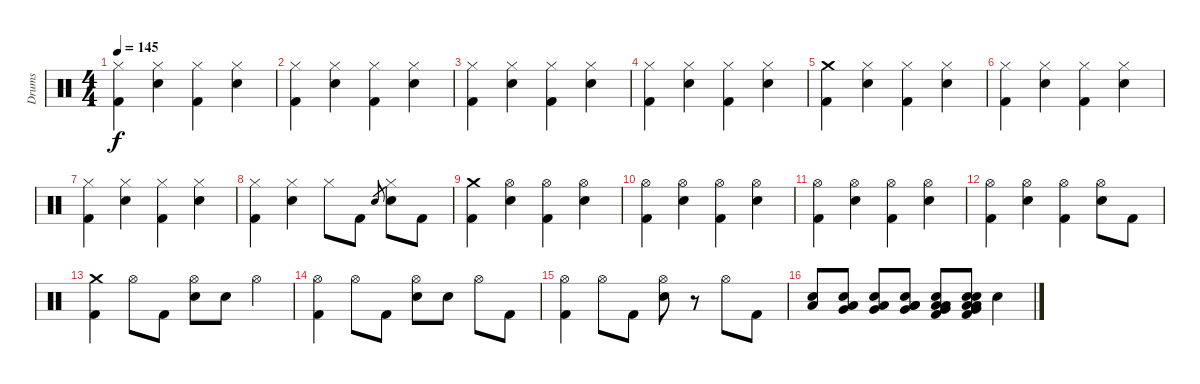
\track ("Drums" "Drums") {instrument percussion}
\staff {score}
\articulation defaults
\ts (4 4)
\tempo 145
\clef neutral
\ks c
("Hi-Hat (closed)" "Kick (hit) 2").4{dy f} ("Hi-Hat (closed)" "Snare (hit) 2").4 ("Hi-Hat (closed)" "Kick (hit) 2").4 ("Hi-Hat (closed)" "Snare (hit) 2").4 |
("Hi-Hat (closed)" "Kick (hit) 2").4 ("Hi-Hat (closed)" "Snare (hit) 2").4 ("Hi-Hat (closed)" "Kick (hit) 2").4 ("Hi-Hat (closed)" "Snare (hit) 2").4 |
("Hi-Hat (closed)" "Kick (hit) 2").4 ("Hi-Hat (closed)" "Snare (hit) 2").4 ("Hi-Hat (closed)" "Kick (hit) 2").4 ("Hi-Hat (closed)" "Snare (hit) 2").4 |
("Hi-Hat (closed)" "Kick (hit) 2").4 ("Hi-Hat (closed)" "Snare (hit) 2").4 ("Hi-Hat (closed)" "Kick (hit) 2").4 ("Hi-Hat (closed)" "Snare (hit) 2").4 |
("Crash medium (hit)" "Kick (hit) 2").4 ("Hi-Hat (closed)" "Snare (hit) 2").4 ("Hi-Hat (closed)" "Kick (hit) 2").4 ("Hi-Hat (closed)" "Snare (hit) 2").4 |
("Hi-Hat (closed)" "Kick (hit) 2").4 ("Hi-Hat (closed)" "Snare (hit) 2").4 ("Hi-Hat (closed)" "Kick (hit) 2").4 ("Hi-Hat (closed)" "Snare (hit) 2").4 |
("Hi-Hat (closed)" "Kick (hit) 2").4 ("Hi-Hat (closed)" "Snare (hit) 2").4 ("Hi-Hat (closed)" "Kick (hit) 2").4 ("Hi-Hat (closed)" "Snare (hit) 2").4 |
("Hi-Hat (closed)" "Kick (hit) 2").4 ("Hi-Hat (closed)" "Snare (hit) 2").4 "Hi-Hat (closed)".8 "Kick (hit) 2".8 "Electric Snare (hit)".8{gr} ("Hi-Hat (closed)" "Snare (hit) 2").8 "Kick (hit) 2".8 |
("Crash medium (hit)" "Kick (hit) 2").4 ("Hi-Hat (open)" "Snare (hit) 2").4 ("Hi-Hat (open)" "Kick (hit) 2").4 ("Hi-Hat (open)" "Snare (hit) 2").4 |
("Hi-Hat (open)" "Kick (hit) 2").4 ("Hi-Hat (open)" "Snare (hit) 2").4 ("Hi-Hat (open)" "Kick (hit) 2").4 ("Hi-Hat (open)" "Snare (hit) 2").4 |
("Hi-Hat (open)" "Kick (hit) 2").4 ("Hi-Hat (open)" "Snare (hit) 2").4 ("Hi-Hat (open)" "Kick (hit) 2").4 ("Hi-Hat (open)" "Snare (hit) 2").4 |
("Hi-Hat (open)" "Kick (hit) 2").4 ("Hi-Hat (open)" "Snare (hit) 2").4 ("Hi-Hat (open)" "Kick (hit) 2").4 ("Hi-Hat (open)" "Snare (hit) 2").8 "Kick (hit) 2".8 |
("Crash medium (hit)" "Kick (hit) 2").4 "Hi-Hat (open)".8 "Kick (hit) 2".8 ("Hi-Hat (open)" "Electric Snare (hit)").8 "Electric Snare (hit)".8 "Hi-Hat (open)".4 |
("Hi-Hat (open)" "Kick (hit) 2").4 "Hi-Hat (open)".8 "Kick (hit) 2".8 ("Hi-Hat (open)" "Electric Snare (hit)").8 "Electric Snare (hit)".8 "Hi-Hat (open)".8 "Kick (hit) 2".8 |
("Hi-Hat (open)" "Kick (hit) 2").4 "Hi-Hat (open)".8 "Kick (hit) 2".8 ("Hi-Hat (open)" "Electric Snare (hit)").8 r.8 "Hi-Hat (open)".8 "Kick (hit) 2".8 |
("Snare (hit) 2" "Low Tom (hit)").8 ("Snare (hit) 2" "Low Tom (hit)" "Very Low Tom (hit)").8 ("Snare (hit) 2" "Low Tom (hit)" "Very Low Tom (hit)").8 ("Snare (hit) 2" "Low Tom (hit)" "Very Low Tom (hit)" "Low Floor Tom (hit)").8 ("Snare (hit) 2" "Low Tom (hit)" "Very Low Tom (hit)" "Low Floor Tom (hit)" "Kick (hit) 2").8 ("Snare (hit) 2" "Low Tom (hit)" "Very Low Tom (hit)" "Low Floor Tom (hit)" "Kick (hit) 2" "Electric Snare (hit)").8 "Snare (hit) 2".4
